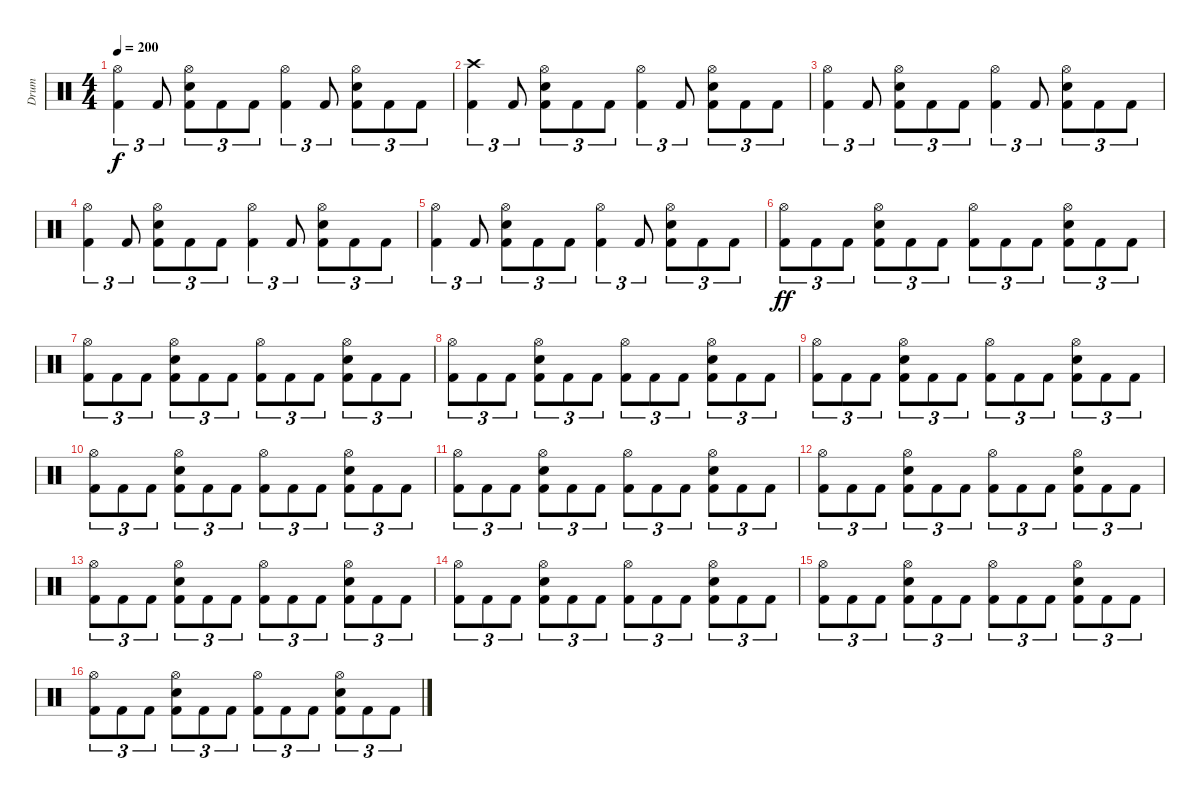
\track ("Drum" "Drum") {instrument percussion}
\staff {score}
\articulation defaults
\ts (4 4)
\tempo 200
\clef neutral
\ks c
("Hi-Hat (open)" "Kick (hit) 2").4{tu (3 2) dy f} "Kick (hit) 2".8{tu (3 2)} ("Hi-Hat (open)" "Snare (hit) 2" "Kick (hit) 2").8{tu (3 2)} "Kick (hit) 2".8{tu (3 2)} "Kick (hit) 2".8{tu (3 2)} ("Hi-Hat (open)" "Kick (hit) 2").4{tu (3 2)} "Kick (hit) 2".8{tu (3 2)} ("Hi-Hat (open)" "Snare (hit) 2" "Kick (hit) 2").8{tu (3 2)} "Kick (hit) 2".8{tu (3 2)} "Kick (hit) 2".8{tu (3 2)} |
("Crash high (hit)" "Kick (hit) 2").4{tu (3 2)} "Kick (hit) 2".8{tu (3 2)} ("Hi-Hat (open)" "Snare (hit) 2" "Kick (hit) 2").8{tu (3 2)} "Kick (hit) 2".8{tu (3 2)} "Kick (hit) 2".8{tu (3 2)} ("Hi-Hat (open)" "Kick (hit) 2").4{tu (3 2)} "Kick (hit) 2".8{tu (3 2)} ("Hi-Hat (open)" "Snare (hit) 2" "Kick (hit) 2").8{tu (3 2)} "Kick (hit) 2".8{tu (3 2)} "Kick (hit) 2".8{tu (3 2)} |
("Hi-Hat (open)" "Kick (hit) 2").4{tu (3 2)} "Kick (hit) 2".8{tu (3 2)} ("Hi-Hat (open)" "Snare (hit) 2" "Kick (hit) 2").8{tu (3 2)} "Kick (hit) 2".8{tu (3 2)} "Kick (hit) 2".8{tu (3 2)} ("Hi-Hat (open)" "Kick (hit) 2").4{tu (3 2)} "Kick (hit) 2".8{tu (3 2)} ("Hi-Hat (open)" "Snare (hit) 2" "Kick (hit) 2").8{tu (3 2)} "Kick (hit) 2".8{tu (3 2)} "Kick (hit) 2".8{tu (3 2)} |
("Hi-Hat (open)" "Kick (hit) 2").4{tu (3 2)} "Kick (hit) 2".8{tu (3 2)} ("Hi-Hat (open)" "Snare (hit) 2" "Kick (hit) 2").8{tu (3 2)} "Kick (hit) 2".8{tu (3 2)} "Kick (hit) 2".8{tu (3 2)} ("Hi-Hat (open)" "Kick (hit) 2").4{tu (3 2)} "Kick (hit) 2".8{tu (3 2)} ("Hi-Hat (open)" "Snare (hit) 2" "Kick (hit) 2").8{tu (3 2)} "Kick (hit) 2".8{tu (3 2)} "Kick (hit) 2".8{tu (3 2)} |
("Hi-Hat (open)" "Kick (hit) 2").4{tu (3 2)} "Kick (hit) 2".8{tu (3 2)} ("Hi-Hat (open)" "Snare (hit) 2" "Kick (hit) 2").8{tu (3 2)} "Kick (hit) 2".8{tu (3 2)} "Kick (hit) 2".8{tu (3 2)} ("Hi-Hat (open)" "Kick (hit) 2").4{tu (3 2)} "Kick (hit) 2".8{tu (3 2)} ("Hi-Hat (open)" "Snare (hit) 2" "Kick (hit) 2").8{tu (3 2)} "Kick (hit) 2".8{tu (3 2)} "Kick (hit) 2".8{tu (3 2)} |
("Hi-Hat (open)" "Kick (hit) 2").8{tu (3 2) dy ff} "Kick (hit) 2".8{tu (3 2)} "Kick (hit) 2".8{tu (3 2)} ("Hi-Hat (open)" "Snare (hit) 2" "Kick (hit) 2").8{tu (3 2)} "Kick (hit) 2".8{tu (3 2)} "Kick (hit) 2".8{tu (3 2)} ("Hi-Hat (open)" "Kick (hit) 2").8{tu (3 2)} "Kick (hit) 2".8{tu (3 2)} "Kick (hit) 2".8{tu (3 2)} ("Hi-Hat (open)" "Snare (hit) 2" "Kick (hit) 2").8{tu (3 2)} "Kick (hit) 2".8{tu (3 2)} "Kick (hit) 2".8{tu (3 2)} |
("Hi-Hat (open)" "Kick (hit) 2").8{tu (3 2)} "Kick (hit) 2".8{tu (3 2)} "Kick (hit) 2".8{tu (3 2)} ("Hi-Hat (open)" "Snare (hit) 2" "Kick (hit) 2").8{tu (3 2)} "Kick (hit) 2".8{tu (3 2)} "Kick (hit) 2".8{tu (3 2)} ("Hi-Hat (open)" "Kick (hit) 2").8{tu (3 2)} "Kick (hit) 2".8{tu (3 2)} "Kick (hit) 2".8{tu (3 2)} ("Hi-Hat (open)" "Snare (hit) 2" "Kick (hit) 2").8{tu (3 2)} "Kick (hit) 2".8{tu (3 2)} "Kick (hit) 2".8{tu (3 2)} |
("Hi-Hat (open)" "Kick (hit) 2").8{tu (3 2)} "Kick (hit) 2".8{tu (3 2)} "Kick (hit) 2".8{tu (3 2)} ("Hi-Hat (open)" "Snare (hit) 2" "Kick (hit) 2").8{tu (3 2)} "Kick (hit) 2".8{tu (3 2)} "Kick (hit) 2".8{tu (3 2)} ("Hi-Hat (open)" "Kick (hit) 2").8{tu (3 2)} "Kick (hit) 2".8{tu (3 2)} "Kick (hit) 2".8{tu (3 2)} ("Hi-Hat (open)" "Snare (hit) 2" "Kick (hit) 2").8{tu (3 2)} "Kick (hit) 2".8{tu (3 2)} "Kick (hit) 2".8{tu (3 2)} |
("Hi-Hat (open)" "Kick (hit) 2").8{tu (3 2)} "Kick (hit) 2".8{tu (3 2)} "Kick (hit) 2".8{tu (3 2)} ("Hi-Hat (open)" "Snare (hit) 2" "Kick (hit) 2").8{tu (3 2)} "Kick (hit) 2".8{tu (3 2)} "Kick (hit) 2".8{tu (3 2)} ("Hi-Hat (open)" "Kick (hit) 2").8{tu (3 2)} "Kick (hit) 2".8{tu (3 2)} "Kick (hit) 2".8{tu (3 2)} ("Hi-Hat (open)" "Snare (hit) 2" "Kick (hit) 2").8{tu (3 2)} "Kick (hit) 2".8{tu (3 2)} "Kick (hit) 2".8{tu (3 2)} |
("Hi-Hat (open)" "Kick (hit) 2").8{tu (3 2)} "Kick (hit) 2".8{tu (3 2)} "Kick (hit) 2".8{tu (3 2)} ("Hi-Hat (open)" "Snare (hit) 2" "Kick (hit) 2").8{tu (3 2)} "Kick (hit) 2".8{tu (3 2)} "Kick (hit) 2".8{tu (3 2)} ("Hi-Hat (open)" "Kick (hit) 2").8{tu (3 2)} "Kick (hit) 2".8{tu (3 2)} "Kick (hit) 2".8{tu (3 2)} ("Hi-Hat (open)" "Snare (hit) 2" "Kick (hit) 2").8{tu (3 2)} "Kick (hit) 2".8{tu (3 2)} "Kick (hit) 2".8{tu (3 2)} |
("Hi-Hat (open)" "Kick (hit) 2").8{tu (3 2)} "Kick (hit) 2".8{tu (3 2)} "Kick (hit) 2".8{tu (3 2)} ("Hi-Hat (open)" "Snare (hit) 2" "Kick (hit) 2").8{tu (3 2)} "Kick (hit) 2".8{tu (3 2)} "Kick (hit) 2".8{tu (3 2)} ("Hi-Hat (open)" "Kick (hit) 2").8{tu (3 2)} "Kick (hit) 2".8{tu (3 2)} "Kick (hit) 2".8{tu (3 2)} ("Hi-Hat (open)" "Snare (hit) 2" "Kick (hit) 2").8{tu (3 2)} "Kick (hit) 2".8{tu (3 2)} "Kick (hit) 2".8{tu (3 2)} |
("Hi-Hat (open)" "Kick (hit) 2").8{tu (3 2)} "Kick (hit) 2".8{tu (3 2)} "Kick (hit) 2".8{tu (3 2)} ("Hi-Hat (open)" "Snare (hit) 2" "Kick (hit) 2").8{tu (3 2)} "Kick (hit) 2".8{tu (3 2)} "Kick (hit) 2".8{tu (3 2)} ("Hi-Hat (open)" "Kick (hit) 2").8{tu (3 2)} "Kick (hit) 2".8{tu (3 2)} "Kick (hit) 2".8{tu (3 2)} ("Hi-Hat (open)" "Snare (hit) 2" "Kick (hit) 2").8{tu (3 2)} "Kick (hit) 2".8{tu (3 2)} "Kick (hit) 2".8{tu (3 2)} |
("Hi-Hat (open)" "Kick (hit) 2").8{tu (3 2)} "Kick (hit) 2".8{tu (3 2)} "Kick (hit) 2".8{tu (3 2)} ("Hi-Hat (open)" "Snare (hit) 2" "Kick (hit) 2").8{tu (3 2)} "Kick (hit) 2".8{tu (3 2)} "Kick (hit) 2".8{tu (3 2)} ("Hi-Hat (open)" "Kick (hit) 2").8{tu (3 2)} "Kick (hit) 2".8{tu (3 2)} "Kick (hit) 2".8{tu (3 2)} ("Hi-Hat (open)" "Snare (hit) 2" "Kick (hit) 2").8{tu (3 2)} "Kick (hit) 2".8{tu (3 2)} "Kick (hit) 2".8{tu (3 2)} |
("Hi-Hat (open)" "Kick (hit) 2").8{tu (3 2)} "Kick (hit) 2".8{tu (3 2)} "Kick (hit) 2".8{tu (3 2)} ("Hi-Hat (open)" "Snare (hit) 2" "Kick (hit) 2").8{tu (3 2)} "Kick (hit) 2".8{tu (3 2)} "Kick (hit) 2".8{tu (3 2)} ("Hi-Hat (open)" "Kick (hit) 2").8{tu (3 2)} "Kick (hit) 2".8{tu (3 2)} "Kick (hit) 2".8{tu (3 2)} ("Hi-Hat (open)" "Snare (hit) 2" "Kick (hit) 2").8{tu (3 2)} "Kick (hit) 2".8{tu (3 2)} "Kick (hit) 2".8{tu (3 2)} |
("Hi-Hat (open)" "Kick (hit) 2").8{tu (3 2)} "Kick (hit) 2".8{tu (3 2)} "Kick (hit) 2".8{tu (3 2)} ("Hi-Hat (open)" "Snare (hit) 2" "Kick (hit) 2").8{tu (3 2)} "Kick (hit) 2".8{tu (3 2)} "Kick (hit) 2".8{tu (3 2)} ("Hi-Hat (open)" "Kick (hit) 2").8{tu (3 2)} "Kick (hit) 2".8{tu (3 2)} "Kick (hit) 2".8{tu (3 2)} ("Hi-Hat (open)" "Snare (hit) 2" "Kick (hit) 2").8{tu (3 2)} "Kick (hit) 2".8{tu (3 2)} "Kick (hit) 2".8{tu (3 2)} |
("Hi-Hat (open)" "Kick (hit) 2").8{tu (3 2)} "Kick (hit) 2".8{tu (3 2)} "Kick (hit) 2".8{tu (3 2)} ("Hi-Hat (open)" "Snare (hit) 2" "Kick (hit) 2").8{tu (3 2)} "Kick (hit) 2".8{tu (3 2)} "Kick (hit) 2".8{tu (3 2)} ("Hi-Hat (open)" "Kick (hit) 2").8{tu (3 2)} "Kick (hit) 2".8{tu (3 2)} "Kick (hit) 2".8{tu (3 2)} ("Hi-Hat (open)" "Snare (hit) 2" "Kick (hit) 2").8{tu (3 2)} "Kick (hit) 2".8{tu (3 2)} "Kick (hit) 2".8{tu (3 2)}
